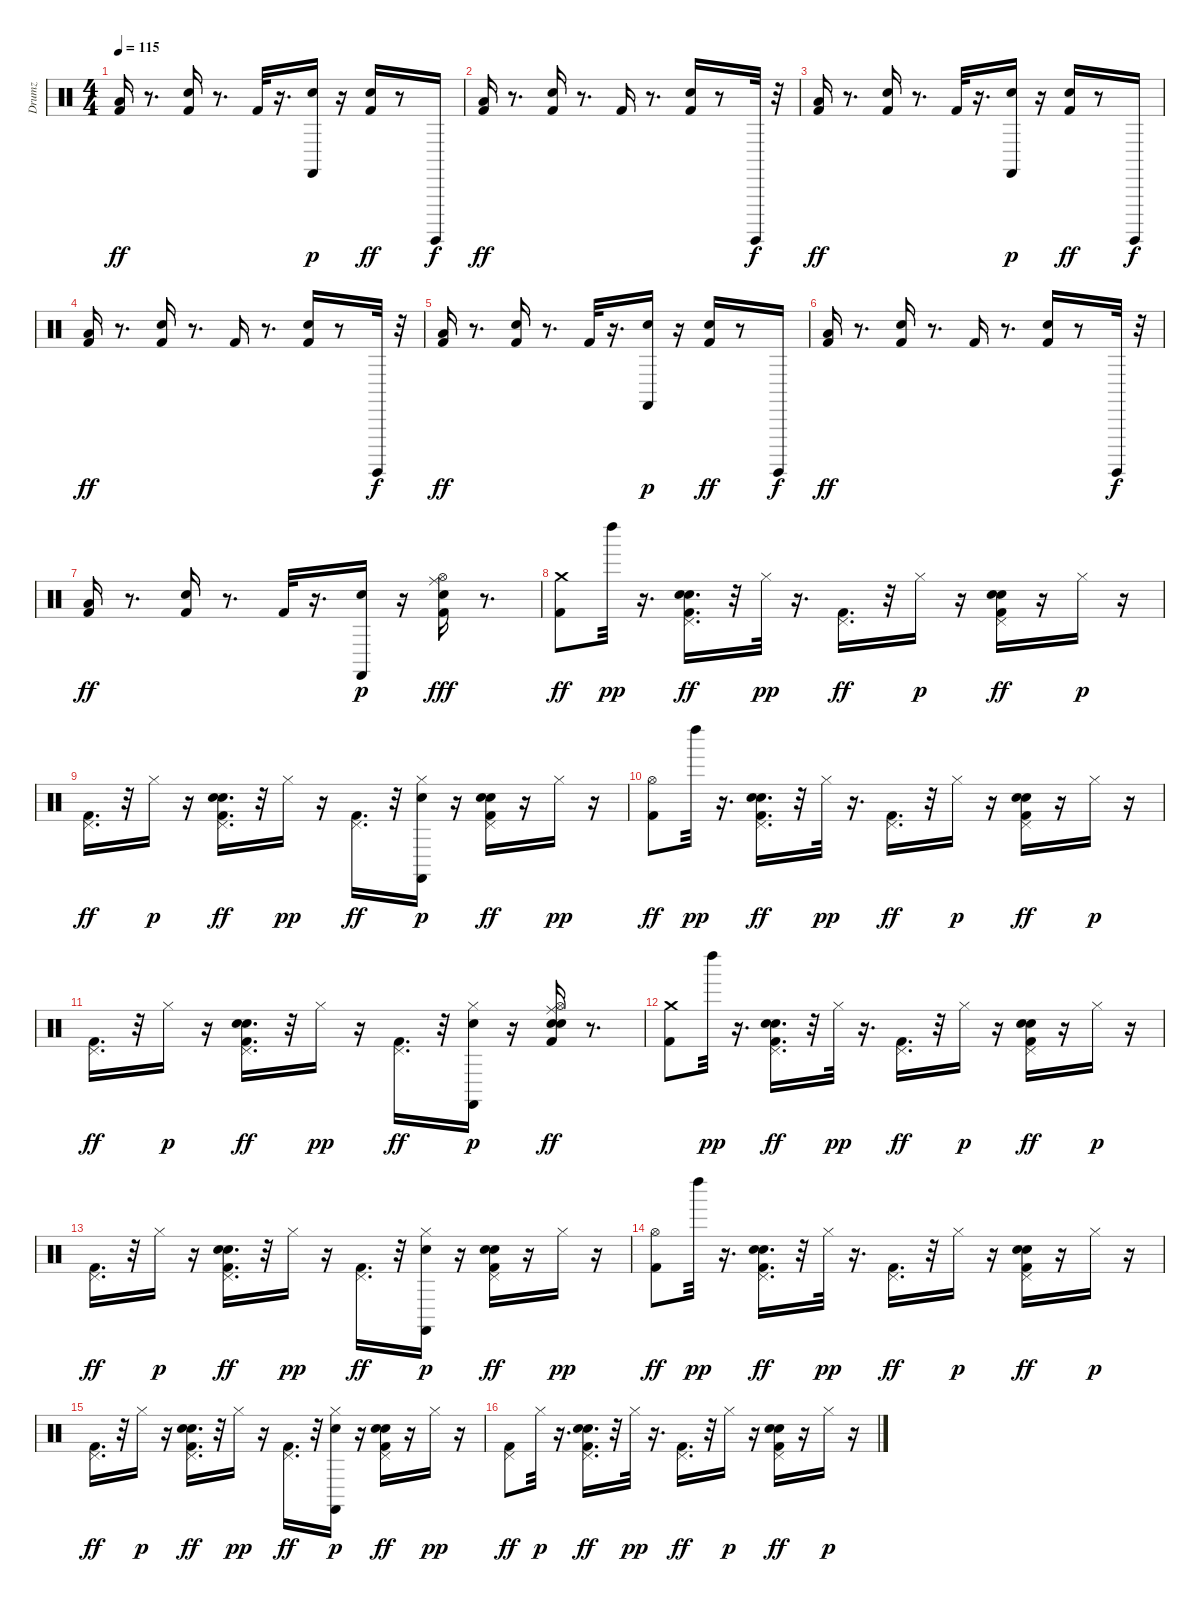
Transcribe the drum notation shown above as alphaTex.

\track ("Drumz" "Drumz") {instrument percussion}
\staff {score}
\articulation defaults
\ts (4 4)
\tempo 115
\clef neutral
\ks c
("Kick (hit) 2" "Low Floor Tom (hit)").16{dy ff} r.8{d} ("Kick (hit) 2" "Hand Clap (hit)").16 r.8{d} "Kick (hit) 2".32 r.16{d} ("Castanets (hit)" "Hand Clap (hit)").16{dy p} r.16 ("Kick (hit) 2" "Hand Clap (hit)").16{dy ff} r.8 "Surdo (hit)".16{dy f} |
("Kick (hit) 2" "Low Floor Tom (hit)").16{dy ff} r.8{d} ("Kick (hit) 2" "Hand Clap (hit)").16 r.8{d} "Kick (hit) 2".16 r.8{d} ("Kick (hit) 2" "Hand Clap (hit)").16 r.8 "Surdo (hit)".32{dy f} r.32 |
("Kick (hit) 2" "Low Floor Tom (hit)").16{dy ff} r.8{d} ("Kick (hit) 2" "Hand Clap (hit)").16 r.8{d} "Kick (hit) 2".32 r.16{d} ("Castanets (hit)" "Hand Clap (hit)").16{dy p} r.16 ("Kick (hit) 2" "Hand Clap (hit)").16{dy ff} r.8 "Surdo (hit)".16{dy f} |
("Kick (hit) 2" "Low Floor Tom (hit)").16{dy ff} r.8{d} ("Kick (hit) 2" "Hand Clap (hit)").16 r.8{d} "Kick (hit) 2".16 r.8{d} ("Kick (hit) 2" "Hand Clap (hit)").16 r.8 "Surdo (hit)".32{dy f} r.32 |
("Kick (hit) 2" "Low Floor Tom (hit)").16{dy ff} r.8{d} ("Kick (hit) 2" "Hand Clap (hit)").16 r.8{d} "Kick (hit) 2".32 r.16{d} ("Castanets (hit)" "Hand Clap (hit)").16{dy p} r.16 ("Kick (hit) 2" "Hand Clap (hit)").16{dy ff} r.8 "Surdo (hit)".16{dy f} |
("Kick (hit) 2" "Low Floor Tom (hit)").16{dy ff} r.8{d} ("Kick (hit) 2" "Hand Clap (hit)").16 r.8{d} "Kick (hit) 2".16 r.8{d} ("Kick (hit) 2" "Hand Clap (hit)").16 r.8 "Surdo (hit)".32{dy f} r.32 |
("Kick (hit) 2" "Low Floor Tom (hit)").16{dy ff} r.8{d} ("Kick (hit) 2" "Hand Clap (hit)").16 r.8{d} "Kick (hit) 2".32 r.16{d} ("Castanets (hit)" "Hand Clap (hit)").16{dy p} r.16 ("Ride (middle)" "Kick (hit) 2" "Hand Clap (hit)" "Hi-Hat (open)").16{dy fff} r.8{d} |
("Crash medium (hit)" "Kick (hit) 2").8{dy ff} "Left Maraca (hit)".32{dy pp} r.16{d} ("Pedal Hi-Hat (hit)" "Kick (hit) 2" "Hand Clap (hit)" "Electric Snare (hit)").16{d dy ff} r.32 "Hi-Hat (closed)".32{dy pp} r.16{d} ("Pedal Hi-Hat (hit)" "Kick (hit) 2").16{d dy ff} r.32 "Hi-Hat (closed)".16{dy p} r.16 ("Pedal Hi-Hat (hit)" "Kick (hit) 2" "Electric Snare (hit)" "Hand Clap (hit)").16{dy ff} r.16 "Hi-Hat (closed)".16{dy p} r.16 |
("Kick (hit) 2" "Pedal Hi-Hat (hit)").16{d dy ff} r.32 "Hi-Hat (closed)".16{dy p} r.16 ("Kick (hit) 2" "Pedal Hi-Hat (hit)" "Hand Clap (hit)" "Electric Snare (hit)").16{d dy ff} r.32 "Hi-Hat (closed)".16{dy pp} r.16 ("Pedal Hi-Hat (hit)" "Kick (hit) 2").16{d dy ff} r.32 ("Hi-Hat (closed)" "Castanets (hit)" "Hand Clap (hit)").16{dy p} r.16 ("Pedal Hi-Hat (hit)" "Kick (hit) 2" "Hand Clap (hit)" "Electric Snare (hit)").16{dy ff} r.16 "Hi-Hat (closed)".16{dy pp} r.16 |
("Hi-Hat (open)" "Kick (hit) 2").8{dy ff} "Left Maraca (hit)".32{dy pp} r.16{d} ("Pedal Hi-Hat (hit)" "Kick (hit) 2" "Hand Clap (hit)" "Electric Snare (hit)").16{d dy ff} r.32 "Hi-Hat (closed)".32{dy pp} r.16{d} ("Pedal Hi-Hat (hit)" "Kick (hit) 2").16{d dy ff} r.32 "Hi-Hat (closed)".16{dy p} r.16 ("Pedal Hi-Hat (hit)" "Kick (hit) 2" "Electric Snare (hit)" "Hand Clap (hit)").16{dy ff} r.16 "Hi-Hat (closed)".16{dy p} r.16 |
("Kick (hit) 2" "Pedal Hi-Hat (hit)").16{d dy ff} r.32 "Hi-Hat (closed)".16{dy p} r.16 ("Kick (hit) 2" "Pedal Hi-Hat (hit)" "Hand Clap (hit)" "Electric Snare (hit)").16{d dy ff} r.32 "Hi-Hat (closed)".16{dy pp} r.16 ("Pedal Hi-Hat (hit)" "Kick (hit) 2").16{d dy ff} r.32 ("Hi-Hat (closed)" "Castanets (hit)" "Hand Clap (hit)").16{dy p} r.16 ("Hi-Hat (open)" "Ride (middle)" "Kick (hit) 2" "Hand Clap (hit)" "Electric Snare (hit)").16{dy ff} r.8{d} |
("Crash medium (hit)" "Kick (hit) 2").8 "Left Maraca (hit)".32{dy pp} r.16{d} ("Pedal Hi-Hat (hit)" "Kick (hit) 2" "Hand Clap (hit)" "Electric Snare (hit)").16{d dy ff} r.32 "Hi-Hat (closed)".32{dy pp} r.16{d} ("Pedal Hi-Hat (hit)" "Kick (hit) 2").16{d dy ff} r.32 "Hi-Hat (closed)".16{dy p} r.16 ("Pedal Hi-Hat (hit)" "Kick (hit) 2" "Electric Snare (hit)" "Hand Clap (hit)").16{dy ff} r.16 "Hi-Hat (closed)".16{dy p} r.16 |
("Kick (hit) 2" "Pedal Hi-Hat (hit)").16{d dy ff} r.32 "Hi-Hat (closed)".16{dy p} r.16 ("Kick (hit) 2" "Pedal Hi-Hat (hit)" "Hand Clap (hit)" "Electric Snare (hit)").16{d dy ff} r.32 "Hi-Hat (closed)".16{dy pp} r.16 ("Pedal Hi-Hat (hit)" "Kick (hit) 2").16{d dy ff} r.32 ("Hi-Hat (closed)" "Castanets (hit)" "Hand Clap (hit)").16{dy p} r.16 ("Pedal Hi-Hat (hit)" "Kick (hit) 2" "Hand Clap (hit)" "Electric Snare (hit)").16{dy ff} r.16 "Hi-Hat (closed)".16{dy pp} r.16 |
("Hi-Hat (open)" "Kick (hit) 2").8{dy ff} "Left Maraca (hit)".32{dy pp} r.16{d} ("Pedal Hi-Hat (hit)" "Kick (hit) 2" "Hand Clap (hit)" "Electric Snare (hit)").16{d dy ff} r.32 "Hi-Hat (closed)".32{dy pp} r.16{d} ("Pedal Hi-Hat (hit)" "Kick (hit) 2").16{d dy ff} r.32 "Hi-Hat (closed)".16{dy p} r.16 ("Pedal Hi-Hat (hit)" "Kick (hit) 2" "Electric Snare (hit)" "Hand Clap (hit)").16{dy ff} r.16 "Hi-Hat (closed)".16{dy p} r.16 |
("Kick (hit) 2" "Pedal Hi-Hat (hit)").16{d dy ff} r.32 "Hi-Hat (closed)".16{dy p} r.16 ("Kick (hit) 2" "Pedal Hi-Hat (hit)" "Hand Clap (hit)" "Electric Snare (hit)").16{d dy ff} r.32 "Hi-Hat (closed)".16{dy pp} r.16 ("Pedal Hi-Hat (hit)" "Kick (hit) 2").16{d dy ff} r.32 ("Hi-Hat (closed)" "Castanets (hit)" "Hand Clap (hit)").16{dy p} r.16 ("Pedal Hi-Hat (hit)" "Kick (hit) 2" "Hand Clap (hit)" "Electric Snare (hit)").16{dy ff} r.16 "Hi-Hat (closed)".16{dy pp} r.16 |
("Pedal Hi-Hat (hit)" "Kick (hit) 2").8{dy ff} "Hi-Hat (closed)".32{dy p} r.16{d} ("Pedal Hi-Hat (hit)" "Kick (hit) 2" "Hand Clap (hit)" "Electric Snare (hit)").16{d dy ff} r.32 "Hi-Hat (closed)".32{dy pp} r.16{d} ("Pedal Hi-Hat (hit)" "Kick (hit) 2").16{d dy ff} r.32 "Hi-Hat (closed)".16{dy p} r.16 ("Pedal Hi-Hat (hit)" "Kick (hit) 2" "Electric Snare (hit)" "Hand Clap (hit)").16{dy ff} r.16 "Hi-Hat (closed)".16{dy p} r.16
